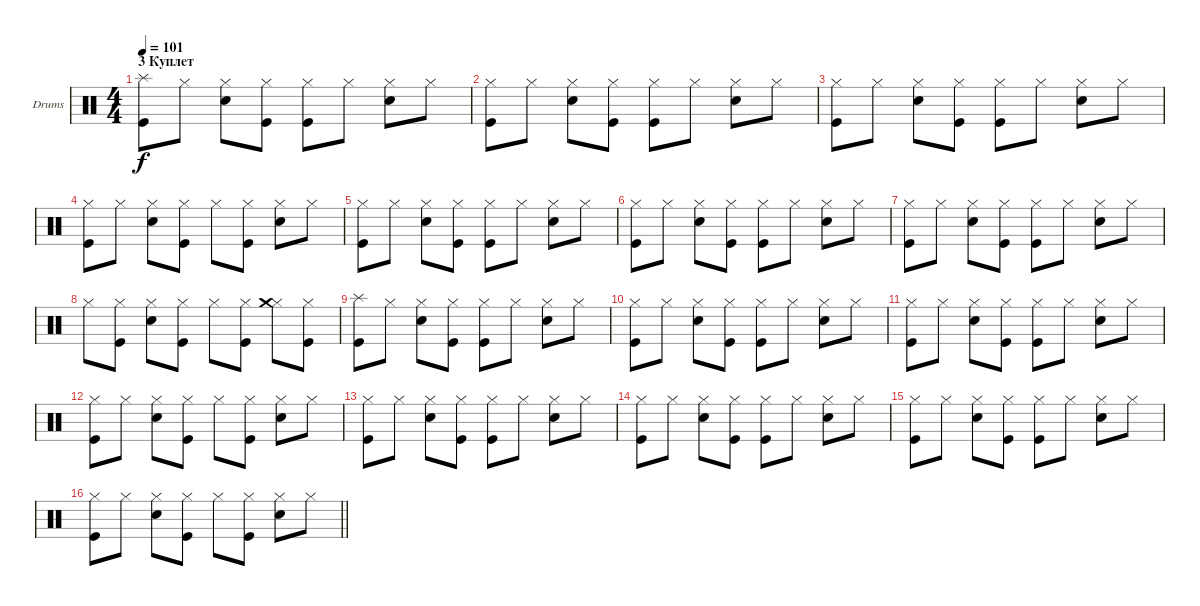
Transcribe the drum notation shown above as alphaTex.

\bracketExtendMode groupsimilarinstruments
\firstSystemTrackNameOrientation horizontal
\otherSystemsTrackNameOrientation horizontal
\track ("Г.Гурьянов (ударные)" "Drums") {instrument percussion}
\staff {score}
\articulation defaults
\ts (4 4)
\section ("" "3 Куплет")
\tempo 101
\clef neutral
\ks c
("Splash (hit)" "Kick (hit)").8{dy f} "Hi-Hat (closed)".8 ("Hi-Hat (closed)" "Snare (hit) 2").8 ("Hi-Hat (closed)" "Kick (hit)").8 ("Hi-Hat (closed)" "Kick (hit)").8 "Hi-Hat (closed)".8 ("Hi-Hat (closed)" "Snare (hit) 2").8 "Hi-Hat (closed)".8 |
("Hi-Hat (closed)" "Kick (hit)").8 "Hi-Hat (closed)".8 ("Hi-Hat (closed)" "Snare (hit) 2").8 ("Hi-Hat (closed)" "Kick (hit)").8 ("Hi-Hat (closed)" "Kick (hit)").8 "Hi-Hat (closed)".8 ("Hi-Hat (closed)" "Snare (hit) 2").8 "Hi-Hat (closed)".8 |
("Hi-Hat (closed)" "Kick (hit)").8 "Hi-Hat (closed)".8 ("Hi-Hat (closed)" "Snare (hit) 2").8 ("Hi-Hat (closed)" "Kick (hit)").8 ("Hi-Hat (closed)" "Kick (hit)").8 "Hi-Hat (closed)".8 ("Hi-Hat (closed)" "Snare (hit) 2").8 "Hi-Hat (closed)".8 |
("Hi-Hat (closed)" "Kick (hit)").8 "Hi-Hat (closed)".8 ("Hi-Hat (closed)" "Snare (hit) 2").8 ("Hi-Hat (closed)" "Kick (hit)").8 "Hi-Hat (closed)".8 ("Hi-Hat (closed)" "Kick (hit)").8 ("Hi-Hat (closed)" "Snare (hit) 2").8 "Hi-Hat (closed)".8 |
("Hi-Hat (closed)" "Kick (hit)").8 "Hi-Hat (closed)".8 ("Hi-Hat (closed)" "Snare (hit) 2").8 ("Hi-Hat (closed)" "Kick (hit)").8 ("Hi-Hat (closed)" "Kick (hit)").8 "Hi-Hat (closed)".8 ("Hi-Hat (closed)" "Snare (hit) 2").8 "Hi-Hat (closed)".8 |
("Hi-Hat (closed)" "Kick (hit)").8 "Hi-Hat (closed)".8 ("Hi-Hat (closed)" "Snare (hit) 2").8 ("Hi-Hat (closed)" "Kick (hit)").8 ("Hi-Hat (closed)" "Kick (hit)").8 "Hi-Hat (closed)".8 ("Hi-Hat (closed)" "Snare (hit) 2").8 "Hi-Hat (closed)".8 |
("Hi-Hat (closed)" "Kick (hit)").8 "Hi-Hat (closed)".8 ("Hi-Hat (closed)" "Snare (hit) 2").8 ("Hi-Hat (closed)" "Kick (hit)").8 ("Hi-Hat (closed)" "Kick (hit)").8 "Hi-Hat (closed)".8 ("Hi-Hat (closed)" "Snare (hit) 2").8 "Hi-Hat (closed)".8 |
"Hi-Hat (closed)".8 ("Hi-Hat (closed)" "Kick (hit)").8 ("Hi-Hat (closed)" "Snare (hit) 2").8 ("Hi-Hat (closed)" "Kick (hit)").8 "Hi-Hat (closed)".8 ("Hi-Hat (closed)" "Kick (hit)").8 ("Hi-Hat (closed)" "Crash medium (hit)").8 ("Hi-Hat (closed)" "Kick (hit)").8 |
("Splash (hit)" "Kick (hit)").8 "Hi-Hat (closed)".8 ("Hi-Hat (closed)" "Snare (hit) 2").8 ("Hi-Hat (closed)" "Kick (hit)").8 ("Hi-Hat (closed)" "Kick (hit)").8 "Hi-Hat (closed)".8 ("Hi-Hat (closed)" "Snare (hit) 2").8 "Hi-Hat (closed)".8 |
("Hi-Hat (closed)" "Kick (hit)").8 "Hi-Hat (closed)".8 ("Hi-Hat (closed)" "Snare (hit) 2").8 ("Hi-Hat (closed)" "Kick (hit)").8 ("Hi-Hat (closed)" "Kick (hit)").8 "Hi-Hat (closed)".8 ("Hi-Hat (closed)" "Snare (hit) 2").8 "Hi-Hat (closed)".8 |
("Hi-Hat (closed)" "Kick (hit)").8 "Hi-Hat (closed)".8 ("Hi-Hat (closed)" "Snare (hit) 2").8 ("Hi-Hat (closed)" "Kick (hit)").8 ("Hi-Hat (closed)" "Kick (hit)").8 "Hi-Hat (closed)".8 ("Hi-Hat (closed)" "Snare (hit) 2").8 "Hi-Hat (closed)".8 |
("Hi-Hat (closed)" "Kick (hit)").8 "Hi-Hat (closed)".8 ("Hi-Hat (closed)" "Snare (hit) 2").8 ("Hi-Hat (closed)" "Kick (hit)").8 "Hi-Hat (closed)".8 ("Hi-Hat (closed)" "Kick (hit)").8 ("Hi-Hat (closed)" "Snare (hit) 2").8 "Hi-Hat (closed)".8 |
("Hi-Hat (closed)" "Kick (hit)").8 "Hi-Hat (closed)".8 ("Hi-Hat (closed)" "Snare (hit) 2").8 ("Hi-Hat (closed)" "Kick (hit)").8 ("Hi-Hat (closed)" "Kick (hit)").8 "Hi-Hat (closed)".8 ("Hi-Hat (closed)" "Snare (hit) 2").8 "Hi-Hat (closed)".8 |
("Hi-Hat (closed)" "Kick (hit)").8 "Hi-Hat (closed)".8 ("Hi-Hat (closed)" "Snare (hit) 2").8 ("Hi-Hat (closed)" "Kick (hit)").8 ("Hi-Hat (closed)" "Kick (hit)").8 "Hi-Hat (closed)".8 ("Hi-Hat (closed)" "Snare (hit) 2").8 "Hi-Hat (closed)".8 |
("Hi-Hat (closed)" "Kick (hit)").8 "Hi-Hat (closed)".8 ("Hi-Hat (closed)" "Snare (hit) 2").8 ("Hi-Hat (closed)" "Kick (hit)").8 ("Hi-Hat (closed)" "Kick (hit)").8 "Hi-Hat (closed)".8 ("Hi-Hat (closed)" "Snare (hit) 2").8 "Hi-Hat (closed)".8 |
\barLineRight lightlight
("Hi-Hat (closed)" "Kick (hit)").8 "Hi-Hat (closed)".8 ("Hi-Hat (closed)" "Snare (hit) 2").8 ("Hi-Hat (closed)" "Kick (hit)").8 "Hi-Hat (closed)".8 ("Hi-Hat (closed)" "Kick (hit)").8 ("Hi-Hat (closed)" "Snare (hit) 2").8 "Hi-Hat (closed)".8
